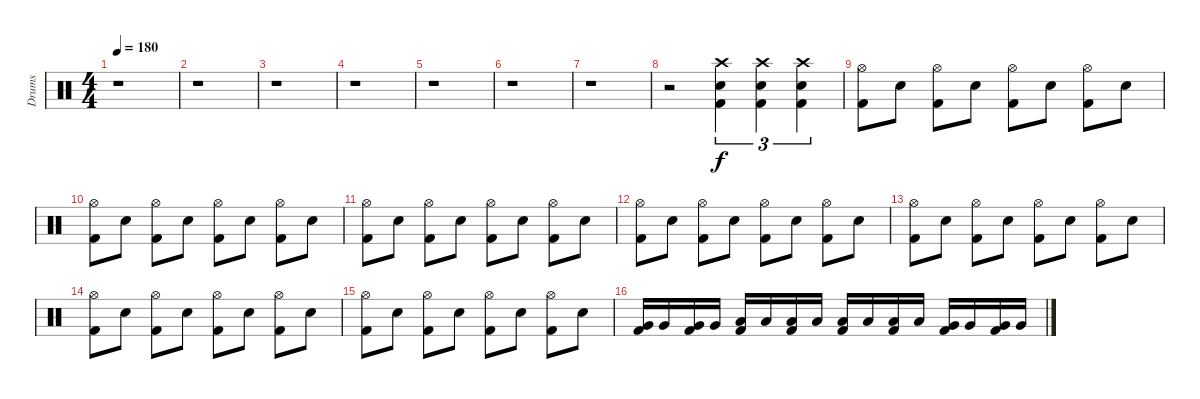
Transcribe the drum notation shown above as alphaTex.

\track ("Drums" "Drums") {instrument percussion}
\staff {score}
\articulation defaults
\ts (4 4)
\tempo 180
\clef neutral
\ks c
r.1{dy f} |
r.1 |
r.1 |
r.1 |
r.1 |
r.1 |
r.1 |
r.2 ("Kick (hit) 2" "Electric Snare (hit)" "Crash high (hit)").4{tu (3 2)} ("Kick (hit) 2" "Electric Snare (hit)" "Crash high (hit)").4{tu (3 2)} ("Kick (hit) 2" "Electric Snare (hit)" "Crash high (hit)").4{tu (3 2)} |
("Kick (hit) 2" "Hi-Hat (open)").8 "Electric Snare (hit)".8 ("Kick (hit) 2" "Hi-Hat (open)").8 "Electric Snare (hit)".8 ("Kick (hit) 2" "Hi-Hat (open)").8 "Electric Snare (hit)".8 ("Kick (hit) 2" "Hi-Hat (open)").8 "Electric Snare (hit)".8 |
("Kick (hit) 2" "Hi-Hat (open)").8 "Electric Snare (hit)".8 ("Kick (hit) 2" "Hi-Hat (open)").8 "Electric Snare (hit)".8 ("Kick (hit) 2" "Hi-Hat (open)").8 "Electric Snare (hit)".8 ("Kick (hit) 2" "Hi-Hat (open)").8 "Electric Snare (hit)".8 |
("Kick (hit) 2" "Hi-Hat (open)").8 "Electric Snare (hit)".8 ("Kick (hit) 2" "Hi-Hat (open)").8 "Electric Snare (hit)".8 ("Kick (hit) 2" "Hi-Hat (open)").8 "Electric Snare (hit)".8 ("Kick (hit) 2" "Hi-Hat (open)").8 "Electric Snare (hit)".8 |
("Kick (hit) 2" "Hi-Hat (open)").8 "Electric Snare (hit)".8 ("Kick (hit) 2" "Hi-Hat (open)").8 "Electric Snare (hit)".8 ("Kick (hit) 2" "Hi-Hat (open)").8 "Electric Snare (hit)".8 ("Kick (hit) 2" "Hi-Hat (open)").8 "Electric Snare (hit)".8 |
("Kick (hit) 2" "Hi-Hat (open)").8 "Electric Snare (hit)".8 ("Kick (hit) 2" "Hi-Hat (open)").8 "Electric Snare (hit)".8 ("Kick (hit) 2" "Hi-Hat (open)").8 "Electric Snare (hit)".8 ("Kick (hit) 2" "Hi-Hat (open)").8 "Electric Snare (hit)".8 |
("Kick (hit) 2" "Hi-Hat (open)").8 "Electric Snare (hit)".8 ("Kick (hit) 2" "Hi-Hat (open)").8 "Electric Snare (hit)".8 ("Kick (hit) 2" "Hi-Hat (open)").8 "Electric Snare (hit)".8 ("Kick (hit) 2" "Hi-Hat (open)").8 "Electric Snare (hit)".8 |
("Kick (hit) 2" "Hi-Hat (open)").8 "Electric Snare (hit)".8 ("Kick (hit) 2" "Hi-Hat (open)").8 "Electric Snare (hit)".8 ("Kick (hit) 2" "Hi-Hat (open)").8 "Electric Snare (hit)".8 ("Kick (hit) 2" "Hi-Hat (open)").8 "Electric Snare (hit)".8 |
("Kick (hit) 2" "Very Low Tom (hit)").16 "Very Low Tom (hit)".16 ("Kick (hit) 2" "Very Low Tom (hit)").16 "Very Low Tom (hit)".16 ("Kick (hit) 2" "Low Tom (hit)").16 "Low Tom (hit)".16 ("Kick (hit) 2" "Low Tom (hit)").16 "Low Tom (hit)".16 ("Kick (hit) 2" "Low Floor Tom (hit)").16 "Low Floor Tom (hit)".16 ("Kick (hit) 2" "Low Floor Tom (hit)").16 "Low Floor Tom (hit)".16 ("Kick (hit) 2" "Very Low Tom (hit)").16 "Very Low Tom (hit)".16 ("Kick (hit) 2" "Very Low Tom (hit)").16 "Very Low Tom (hit)".16
